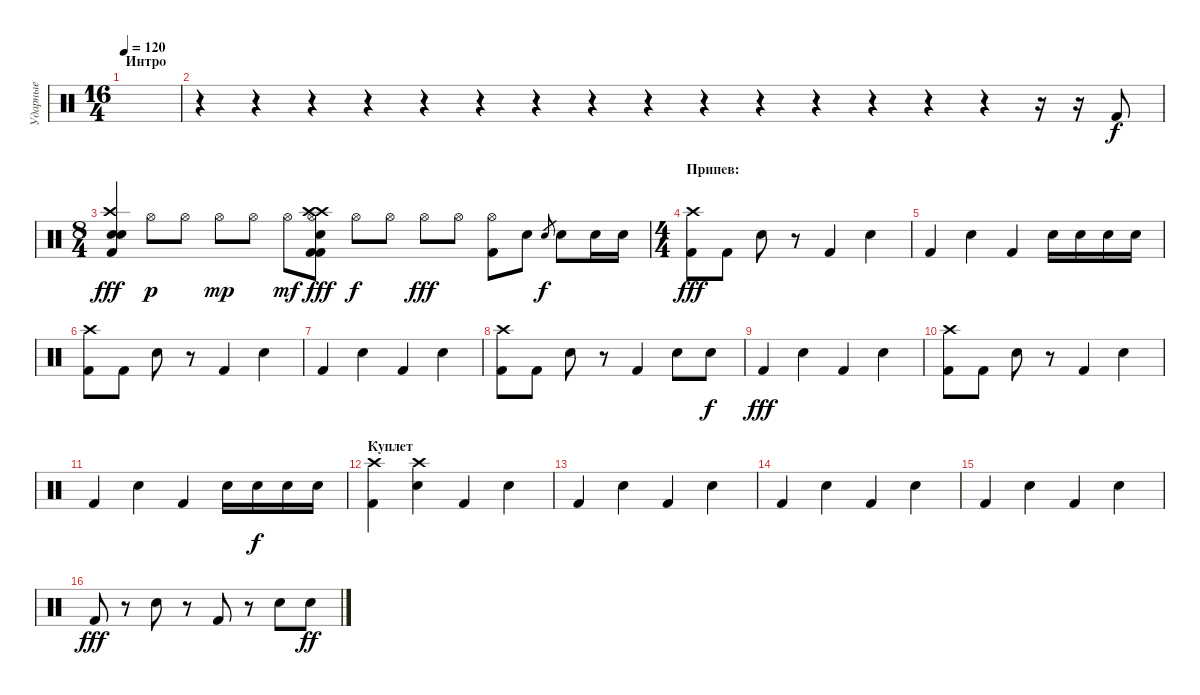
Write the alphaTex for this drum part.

\track ("Ударные" "Ударные") {instrument percussion}
\staff {score}
\articulation defaults
\ts (16 4)
\section ("" "Интро")
\tempo 120
\clef neutral
\ks c
|
r.4 r.4 r.4 r.4 r.4 r.4 r.4 r.4 r.4 r.4 r.4 r.4 r.4 r.4 r.4 r.16 r.16 "Kick (hit) 2".8 |
\ts (8 4)
("Crash high (hit)" "Electric Snare (hit)" "Electric Snare (hit)" "Kick (hit) 2").4{dy fff} "Hi-Hat (open)".8{dy p} "Hi-Hat (open)".8 "Hi-Hat (open)".8{dy mp} "Hi-Hat (open)".8 "Hi-Hat (open)".8{dy mf} ("Kick (hit) 2" "Crash high (hit)" "Hi-Hat (open)" "Kick (hit) 2" "Crash high (hit)" "Electric Snare (hit)").8{dy fff} "Hi-Hat (open)".8{dy f} "Hi-Hat (open)".8 "Hi-Hat (open)".8{dy fff} "Hi-Hat (open)".8 ("Hi-Hat (open)" "Kick (hit) 2").8 "Electric Snare (hit)".8 "Electric Snare (hit)".8{gr dy f} "Electric Snare (hit)".8 "Electric Snare (hit)".16 "Electric Snare (hit)".16 |
\ts (4 4)
\section ("" "Припев:")
("Crash high (hit)" "Kick (hit) 2").8{dy fff} "Kick (hit) 2".8 "Electric Snare (hit)".8 r.8 "Kick (hit) 2".4 "Electric Snare (hit)".4 |
"Kick (hit) 2".4 "Electric Snare (hit)".4 "Kick (hit) 2".4 "Electric Snare (hit)".16 "Electric Snare (hit)".16 "Electric Snare (hit)".16 "Electric Snare (hit)".16 |
("Crash high (hit)" "Kick (hit) 2").8 "Kick (hit) 2".8 "Electric Snare (hit)".8 r.8 "Kick (hit) 2".4 "Electric Snare (hit)".4 |
"Kick (hit) 2".4 "Electric Snare (hit)".4 "Kick (hit) 2".4 "Electric Snare (hit)".4 |
("Crash high (hit)" "Kick (hit) 2").8 "Kick (hit) 2".8 "Electric Snare (hit)".8 r.8 "Kick (hit) 2".4 "Electric Snare (hit)".8 "Electric Snare (hit)".8{dy f} |
"Kick (hit) 2".4{dy fff} "Electric Snare (hit)".4 "Kick (hit) 2".4 "Electric Snare (hit)".4 |
("Crash high (hit)" "Kick (hit) 2").8 "Kick (hit) 2".8 "Electric Snare (hit)".8 r.8 "Kick (hit) 2".4 "Electric Snare (hit)".4 |
"Kick (hit) 2".4 "Electric Snare (hit)".4 "Kick (hit) 2".4 "Electric Snare (hit)".16 "Electric Snare (hit)".16{dy f} "Electric Snare (hit)".16 "Electric Snare (hit)".16 |
\section ("" "Куплет")
("Crash high (hit)" "Kick (hit) 2").4 ("Crash high (hit)" "Electric Snare (hit)").4 "Kick (hit) 2".4 "Electric Snare (hit)".4 |
"Kick (hit) 2".4 "Electric Snare (hit)".4 "Kick (hit) 2".4 "Electric Snare (hit)".4 |
"Kick (hit) 2".4 "Electric Snare (hit)".4 "Kick (hit) 2".4 "Electric Snare (hit)".4 |
"Kick (hit) 2".4 "Electric Snare (hit)".4 "Kick (hit) 2".4 "Electric Snare (hit)".4 |
"Kick (hit) 2".8{dy fff} r.8 "Electric Snare (hit)".8 r.8 "Kick (hit) 2".8 r.8 "Electric Snare (hit)".8 "Electric Snare (hit)".8{dy ff}
